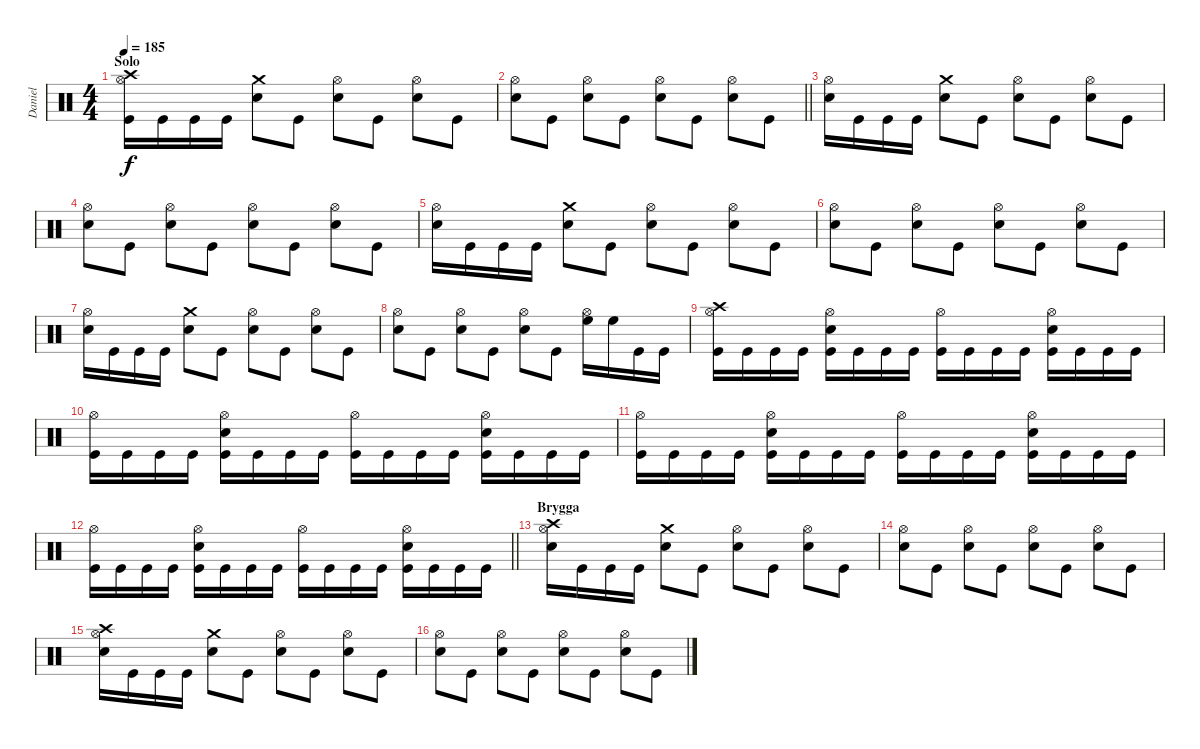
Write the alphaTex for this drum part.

\track ("Daniel" "Daniel") {instrument percussion}
\staff {score}
\articulation defaults
\ts (4 4)
\section ("" "Solo")
\tempo 185
\clef neutral
\ks c
("Crash high (hit)" "Hi-Hat (open)" "Kick (hit)").16{dy f} "Kick (hit)".16 "Kick (hit)".16 "Kick (hit)".16 ("Crash medium (hit)" "Electric Snare (hit)").8 "Kick (hit)".8 ("Hi-Hat (open)" "Electric Snare (hit)").8 "Kick (hit)".8 ("Hi-Hat (open)" "Electric Snare (hit)").8 "Kick (hit)".8 |
\barLineRight lightlight
("Hi-Hat (open)" "Electric Snare (hit)").8 "Kick (hit)".8 ("Hi-Hat (open)" "Electric Snare (hit)").8 "Kick (hit)".8 ("Hi-Hat (open)" "Electric Snare (hit)").8 "Kick (hit)".8 ("Hi-Hat (open)" "Electric Snare (hit)").8 "Kick (hit)".8 |
\section ("" "")
("Hi-Hat (open)" "Electric Snare (hit)").16 "Kick (hit)".16 "Kick (hit)".16 "Kick (hit)".16 ("Crash medium (hit)" "Electric Snare (hit)").8 "Kick (hit)".8 ("Hi-Hat (open)" "Electric Snare (hit)").8 "Kick (hit)".8 ("Hi-Hat (open)" "Electric Snare (hit)").8 "Kick (hit)".8 |
("Hi-Hat (open)" "Electric Snare (hit)").8 "Kick (hit)".8 ("Hi-Hat (open)" "Electric Snare (hit)").8 "Kick (hit)".8 ("Hi-Hat (open)" "Electric Snare (hit)").8 "Kick (hit)".8 ("Hi-Hat (open)" "Electric Snare (hit)").8 "Kick (hit)".8 |
("Hi-Hat (open)" "Electric Snare (hit)").16 "Kick (hit)".16 "Kick (hit)".16 "Kick (hit)".16 ("Crash medium (hit)" "Electric Snare (hit)").8 "Kick (hit)".8 ("Hi-Hat (open)" "Electric Snare (hit)").8 "Kick (hit)".8 ("Hi-Hat (open)" "Electric Snare (hit)").8 "Kick (hit)".8 |
("Hi-Hat (open)" "Electric Snare (hit)").8 "Kick (hit)".8 ("Hi-Hat (open)" "Electric Snare (hit)").8 "Kick (hit)".8 ("Hi-Hat (open)" "Electric Snare (hit)").8 "Kick (hit)".8 ("Hi-Hat (open)" "Electric Snare (hit)").8 "Kick (hit)".8 |
("Hi-Hat (open)" "Electric Snare (hit)").16 "Kick (hit)".16 "Kick (hit)".16 "Kick (hit)".16 ("Crash medium (hit)" "Electric Snare (hit)").8 "Kick (hit)".8 ("Hi-Hat (open)" "Electric Snare (hit)").8 "Kick (hit)".8 ("Hi-Hat (open)" "Electric Snare (hit)").8 "Kick (hit)".8 |
("Hi-Hat (open)" "Electric Snare (hit)").8 "Kick (hit)".8 ("Hi-Hat (open)" "Electric Snare (hit)").8 "Kick (hit)".8 ("Hi-Hat (open)" "Electric Snare (hit)").8 "Kick (hit)".8 ("Hi-Hat (open)" "High Floor Tom (hit)").16 "High Floor Tom (hit)".16 "Kick (hit)".16 "Kick (hit)".16 |
("Crash high (hit)" "Hi-Hat (open)" "Kick (hit)").16 "Kick (hit)".16 "Kick (hit)".16 "Kick (hit)".16 ("Hi-Hat (open)" "Electric Snare (hit)" "Kick (hit)").16 "Kick (hit)".16 "Kick (hit)".16 "Kick (hit)".16 ("Hi-Hat (open)" "Kick (hit)").16 "Kick (hit)".16 "Kick (hit)".16 "Kick (hit)".16 ("Hi-Hat (open)" "Electric Snare (hit)" "Kick (hit)").16 "Kick (hit)".16 "Kick (hit)".16 "Kick (hit)".16 |
("Hi-Hat (open)" "Kick (hit)").16 "Kick (hit)".16 "Kick (hit)".16 "Kick (hit)".16 ("Hi-Hat (open)" "Electric Snare (hit)" "Kick (hit)").16 "Kick (hit)".16 "Kick (hit)".16 "Kick (hit)".16 ("Hi-Hat (open)" "Kick (hit)").16 "Kick (hit)".16 "Kick (hit)".16 "Kick (hit)".16 ("Hi-Hat (open)" "Electric Snare (hit)" "Kick (hit)").16 "Kick (hit)".16 "Kick (hit)".16 "Kick (hit)".16 |
("Hi-Hat (open)" "Kick (hit)").16 "Kick (hit)".16 "Kick (hit)".16 "Kick (hit)".16 ("Hi-Hat (open)" "Electric Snare (hit)" "Kick (hit)").16 "Kick (hit)".16 "Kick (hit)".16 "Kick (hit)".16 ("Hi-Hat (open)" "Kick (hit)").16 "Kick (hit)".16 "Kick (hit)".16 "Kick (hit)".16 ("Hi-Hat (open)" "Electric Snare (hit)" "Kick (hit)").16 "Kick (hit)".16 "Kick (hit)".16 "Kick (hit)".16 |
\barLineRight lightlight
("Hi-Hat (open)" "Kick (hit)").16 "Kick (hit)".16 "Kick (hit)".16 "Kick (hit)".16 ("Hi-Hat (open)" "Electric Snare (hit)" "Kick (hit)").16 "Kick (hit)".16 "Kick (hit)".16 "Kick (hit)".16 ("Hi-Hat (open)" "Kick (hit)").16 "Kick (hit)".16 "Kick (hit)".16 "Kick (hit)".16 ("Hi-Hat (open)" "Electric Snare (hit)" "Kick (hit)").16 "Kick (hit)".16 "Kick (hit)".16 "Kick (hit)".16 |
\section ("" "Brygga")
("Crash high (hit)" "Hi-Hat (open)" "Electric Snare (hit)").16 "Kick (hit)".16 "Kick (hit)".16 "Kick (hit)".16 ("Crash medium (hit)" "Electric Snare (hit)").8 "Kick (hit)".8 ("Hi-Hat (open)" "Electric Snare (hit)").8 "Kick (hit)".8 ("Hi-Hat (open)" "Electric Snare (hit)").8 "Kick (hit)".8 |
("Hi-Hat (open)" "Electric Snare (hit)").8 "Kick (hit)".8 ("Hi-Hat (open)" "Electric Snare (hit)").8 "Kick (hit)".8 ("Hi-Hat (open)" "Electric Snare (hit)").8 "Kick (hit)".8 ("Hi-Hat (open)" "Electric Snare (hit)").8 "Kick (hit)".8 |
("Crash high (hit)" "Hi-Hat (open)" "Electric Snare (hit)").16 "Kick (hit)".16 "Kick (hit)".16 "Kick (hit)".16 ("Crash medium (hit)" "Electric Snare (hit)").8 "Kick (hit)".8 ("Hi-Hat (open)" "Electric Snare (hit)").8 "Kick (hit)".8 ("Hi-Hat (open)" "Electric Snare (hit)").8 "Kick (hit)".8 |
("Hi-Hat (open)" "Electric Snare (hit)").8 "Kick (hit)".8 ("Hi-Hat (open)" "Electric Snare (hit)").8 "Kick (hit)".8 ("Hi-Hat (open)" "Electric Snare (hit)").8 "Kick (hit)".8 ("Hi-Hat (open)" "Electric Snare (hit)").8 "Kick (hit)".8
